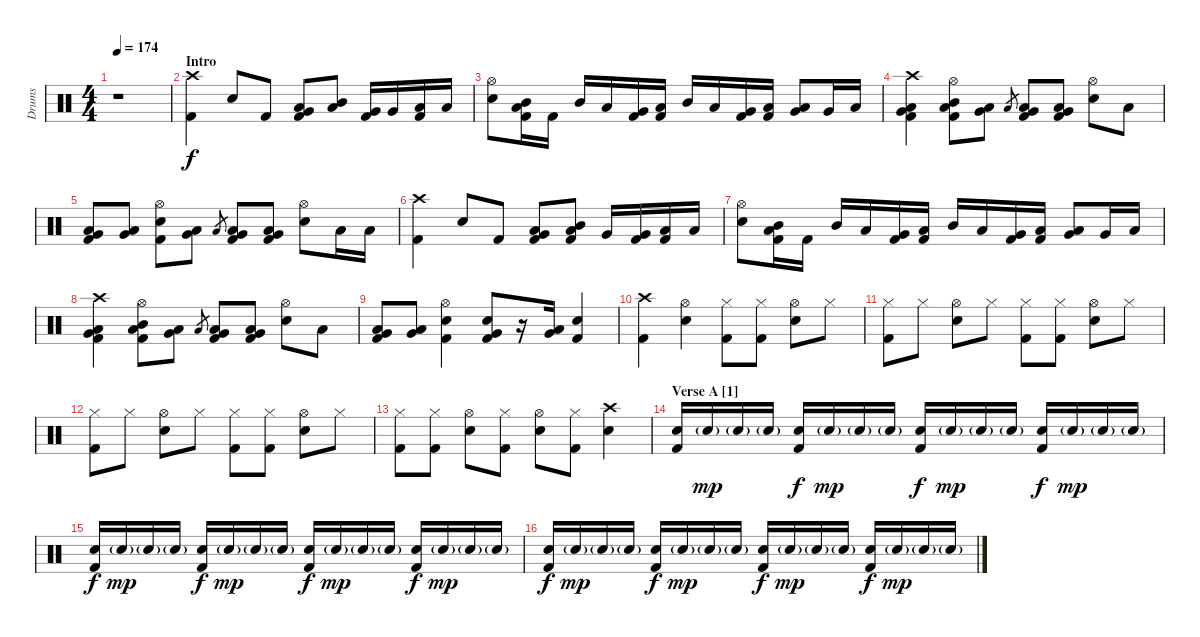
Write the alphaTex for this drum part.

\track ("Drums" "Drums") {instrument percussion}
\staff {score}
\articulation defaults
\ts (4 4)
\tempo 174
\clef neutral
\ks c
r.1{dy f} |
\section ("" "Intro")
("Crash high (hit)" "Kick (hit) 2").4 "Electric Snare (hit)".8 "Kick (hit) 2".8 ("Low Tom (hit)" "Very Low Tom (hit)" "Kick (hit) 2").8 ("Mid Tom (hit)" "Low Tom (hit)").8 ("Very Low Tom (hit)" "Kick (hit) 2").16 "Very Low Tom (hit)".16 ("Low Floor Tom (hit)" "Kick (hit) 2").16 "Low Floor Tom (hit)".16 |
("Hi-Hat (open)" "Electric Snare (hit)").8 ("Mid Tom (hit)" "Low Tom (hit)" "Kick (hit) 2").16 "Kick (hit) 2".16 "Mid Tom (hit)".16 "Low Tom (hit)".16 ("Very Low Tom (hit)" "Kick (hit) 2").16 ("Low Floor Tom (hit)" "Kick (hit) 2").16 "Mid Tom (hit)".16 "Low Tom (hit)".16 ("Very Low Tom (hit)" "Kick (hit) 2").16 ("Low Floor Tom (hit)" "Kick (hit) 2").16 ("Low Tom (hit)" "Very Low Tom (hit)").8 "Very Low Tom (hit)".16 "Low Floor Tom (hit)".16 |
("Crash high (hit)" "Low Tom (hit)" "Very Low Tom (hit)" "Kick (hit) 2").4 ("Hi-Hat (open)" "Mid Tom (hit)" "Low Tom (hit)" "Kick (hit) 2").8 ("Low Tom (hit)" "Very Low Tom (hit)").8 "Low Tom (hit)".8{gr} ("Low Tom (hit)" "Very Low Tom (hit)" "Kick (hit) 2").8 ("Low Tom (hit)" "Very Low Tom (hit)" "Kick (hit) 2").8 ("Hi-Hat (open)" "Electric Snare (hit)").8 "Low Tom (hit)".8 |
("Low Tom (hit)" "Very Low Tom (hit)" "Kick (hit) 2").8 ("Low Tom (hit)" "Very Low Tom (hit)").8 ("Hi-Hat (open)" "Electric Snare (hit)" "Kick (hit) 2").8 ("Low Tom (hit)" "Very Low Tom (hit)").8 "Low Tom (hit)".8{gr} ("Low Tom (hit)" "Very Low Tom (hit)" "Kick (hit) 2").8 ("Low Tom (hit)" "Very Low Tom (hit)" "Kick (hit) 2").8 ("Hi-Hat (open)" "Electric Snare (hit)").8 "Low Tom (hit)".16 "Low Tom (hit)".16 |
("Crash high (hit)" "Kick (hit) 2").4 "Electric Snare (hit)".8 "Kick (hit) 2".8 ("Low Tom (hit)" "Very Low Tom (hit)" "Kick (hit) 2").8 ("Mid Tom (hit)" "Low Tom (hit)" "Kick (hit) 2").8 "Very Low Tom (hit)".16 ("Very Low Tom (hit)" "Kick (hit) 2").16 ("Low Floor Tom (hit)" "Kick (hit) 2").16 "Low Floor Tom (hit)".16 |
("Hi-Hat (open)" "Electric Snare (hit)").8 ("Mid Tom (hit)" "Low Tom (hit)" "Kick (hit) 2").16 "Kick (hit) 2".16 "Mid Tom (hit)".16 "Low Tom (hit)".16 ("Very Low Tom (hit)" "Kick (hit) 2").16 ("Low Floor Tom (hit)" "Kick (hit) 2").16 "Mid Tom (hit)".16 "Low Tom (hit)".16 ("Very Low Tom (hit)" "Kick (hit) 2").16 ("Low Floor Tom (hit)" "Kick (hit) 2").16 ("Low Tom (hit)" "Very Low Tom (hit)").8 "Very Low Tom (hit)".16 "Low Floor Tom (hit)".16 |
("Crash high (hit)" "Low Tom (hit)" "Very Low Tom (hit)" "Kick (hit) 2").4 ("Hi-Hat (open)" "Mid Tom (hit)" "Low Tom (hit)" "Kick (hit) 2").8 ("Low Tom (hit)" "Very Low Tom (hit)").8 "Low Tom (hit)".8{gr} ("Low Tom (hit)" "Very Low Tom (hit)" "Kick (hit) 2").8 ("Low Tom (hit)" "Very Low Tom (hit)" "Kick (hit) 2").8 ("Hi-Hat (open)" "Electric Snare (hit)").8 "Low Tom (hit)".8 |
("Low Tom (hit)" "Very Low Tom (hit)" "Kick (hit) 2").8 ("Low Tom (hit)" "Very Low Tom (hit)").8 ("Hi-Hat (open)" "Electric Snare (hit)" "Kick (hit) 2").4 ("Electric Snare (hit)" "Very Low Tom (hit)" "Kick (hit) 2").8 r.16 ("Low Tom (hit)" "Very Low Tom (hit)").16 ("Electric Snare (hit)" "Kick (hit) 2").4 |
("Crash high (hit)" "Kick (hit) 2").4 ("Hi-Hat (open)" "Electric Snare (hit)").4 ("Hi-Hat (closed)" "Kick (hit) 2").8 ("Hi-Hat (closed)" "Kick (hit) 2").8 ("Hi-Hat (open)" "Electric Snare (hit)").8 "Hi-Hat (closed)".8 |
("Hi-Hat (closed)" "Kick (hit) 2").8 "Hi-Hat (closed)".8 ("Hi-Hat (open)" "Electric Snare (hit)").8 "Hi-Hat (closed)".8 ("Hi-Hat (closed)" "Kick (hit) 2").8 ("Hi-Hat (closed)" "Kick (hit) 2").8 ("Hi-Hat (open)" "Electric Snare (hit)").8 "Hi-Hat (closed)".8 |
("Hi-Hat (closed)" "Kick (hit) 2").8 "Hi-Hat (closed)".8 ("Hi-Hat (open)" "Electric Snare (hit)").8 "Hi-Hat (closed)".8 ("Hi-Hat (closed)" "Kick (hit) 2").8 ("Hi-Hat (closed)" "Kick (hit) 2").8 ("Hi-Hat (open)" "Electric Snare (hit)").8 "Hi-Hat (closed)".8 |
("Hi-Hat (closed)" "Kick (hit) 2").8 ("Hi-Hat (closed)" "Kick (hit) 2").8 ("Hi-Hat (open)" "Electric Snare (hit)").8 ("Hi-Hat (closed)" "Kick (hit) 2").8 ("Hi-Hat (open)" "Electric Snare (hit)").8 ("Hi-Hat (closed)" "Kick (hit) 2").8 ("Crash high (hit)" "Electric Snare (hit)").4 |
\section ("" "Verse A [1]")
("Electric Snare (hit)" "Kick (hit) 2").16 "Electric Snare (hit)"{g}.16{dy mp} "Electric Snare (hit)"{g}.16 "Electric Snare (hit)"{g}.16 ("Electric Snare (hit)" "Kick (hit) 2").16{dy f} "Electric Snare (hit)"{g}.16{dy mp} "Electric Snare (hit)"{g}.16 "Electric Snare (hit)"{g}.16 ("Electric Snare (hit)" "Kick (hit) 2").16{dy f} "Electric Snare (hit)"{g}.16{dy mp} "Electric Snare (hit)"{g}.16 "Electric Snare (hit)"{g}.16 ("Electric Snare (hit)" "Kick (hit) 2").16{dy f} "Electric Snare (hit)"{g}.16{dy mp} "Electric Snare (hit)"{g}.16 "Electric Snare (hit)"{g}.16 |
("Electric Snare (hit)" "Kick (hit) 2").16{dy f} "Electric Snare (hit)"{g}.16{dy mp} "Electric Snare (hit)"{g}.16 "Electric Snare (hit)"{g}.16 ("Electric Snare (hit)" "Kick (hit) 2").16{dy f} "Electric Snare (hit)"{g}.16{dy mp} "Electric Snare (hit)"{g}.16 "Electric Snare (hit)"{g}.16 ("Electric Snare (hit)" "Kick (hit) 2").16{dy f} "Electric Snare (hit)"{g}.16{dy mp} "Electric Snare (hit)"{g}.16 "Electric Snare (hit)"{g}.16 ("Electric Snare (hit)" "Kick (hit) 2").16{dy f} "Electric Snare (hit)"{g}.16{dy mp} "Electric Snare (hit)"{g}.16 "Electric Snare (hit)"{g}.16 |
("Electric Snare (hit)" "Kick (hit) 2").16{dy f} "Electric Snare (hit)"{g}.16{dy mp} "Electric Snare (hit)"{g}.16 "Electric Snare (hit)"{g}.16 ("Electric Snare (hit)" "Kick (hit) 2").16{dy f} "Electric Snare (hit)"{g}.16{dy mp} "Electric Snare (hit)"{g}.16 "Electric Snare (hit)"{g}.16 ("Electric Snare (hit)" "Kick (hit) 2").16{dy f} "Electric Snare (hit)"{g}.16{dy mp} "Electric Snare (hit)"{g}.16 "Electric Snare (hit)"{g}.16 ("Electric Snare (hit)" "Kick (hit) 2").16{dy f} "Electric Snare (hit)"{g}.16{dy mp} "Electric Snare (hit)"{g}.16 "Electric Snare (hit)"{g}.16
